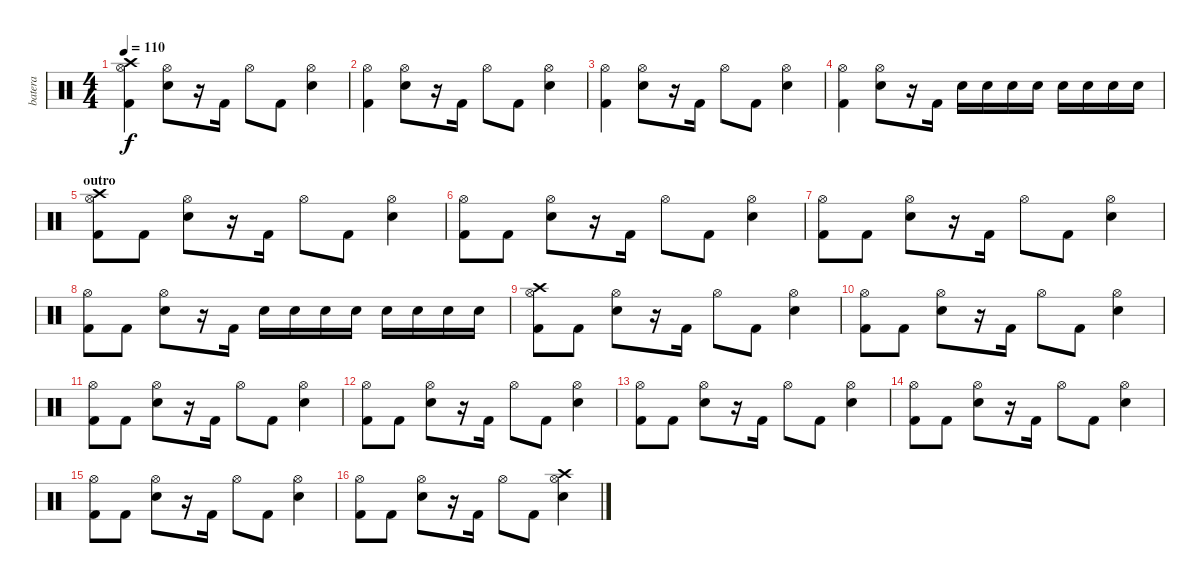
\track ("batera" "batera") {instrument percussion}
\staff {score}
\articulation defaults
\ts (4 4)
\tempo 110
\clef neutral
\ks c
("Crash high (hit)" "Kick (hit) 2" "Hi-Hat (open)").4{dy f} ("Snare (hit) 2" "Hi-Hat (open)").8 r.16 "Kick (hit) 2".16 "Hi-Hat (open)".8 "Kick (hit) 2".8 ("Snare (hit) 2" "Hi-Hat (open)").4 |
("Kick (hit) 2" "Hi-Hat (open)").4 ("Snare (hit) 2" "Hi-Hat (open)").8 r.16 "Kick (hit) 2".16 "Hi-Hat (open)".8 "Kick (hit) 2".8 ("Snare (hit) 2" "Hi-Hat (open)").4 |
("Kick (hit) 2" "Hi-Hat (open)").4 ("Snare (hit) 2" "Hi-Hat (open)").8 r.16 "Kick (hit) 2".16 "Hi-Hat (open)".8 "Kick (hit) 2".8 ("Snare (hit) 2" "Hi-Hat (open)").4 |
("Kick (hit) 2" "Hi-Hat (open)").4 ("Snare (hit) 2" "Hi-Hat (open)").8 r.16 "Kick (hit) 2".16 "Snare (hit) 2".16 "Snare (hit) 2".16 "Snare (hit) 2".16 "Snare (hit) 2".16 "Snare (hit) 2".16 "Snare (hit) 2".16 "Snare (hit) 2".16 "Snare (hit) 2".16 |
\section ("" "outro")
("Crash high (hit)" "Kick (hit) 2" "Hi-Hat (open)").8 "Kick (hit) 2".8 ("Snare (hit) 2" "Hi-Hat (open)").8 r.16 "Kick (hit) 2".16 "Hi-Hat (open)".8 "Kick (hit) 2".8 ("Snare (hit) 2" "Hi-Hat (open)").4 |
("Kick (hit) 2" "Hi-Hat (open)").8 "Kick (hit) 2".8 ("Snare (hit) 2" "Hi-Hat (open)").8 r.16 "Kick (hit) 2".16 "Hi-Hat (open)".8 "Kick (hit) 2".8 ("Snare (hit) 2" "Hi-Hat (open)").4 |
("Kick (hit) 2" "Hi-Hat (open)").8 "Kick (hit) 2".8 ("Snare (hit) 2" "Hi-Hat (open)").8 r.16 "Kick (hit) 2".16 "Hi-Hat (open)".8 "Kick (hit) 2".8 ("Snare (hit) 2" "Hi-Hat (open)").4 |
("Kick (hit) 2" "Hi-Hat (open)").8 "Kick (hit) 2".8 ("Snare (hit) 2" "Hi-Hat (open)").8 r.16 "Kick (hit) 2".16 "Snare (hit) 2".16 "Snare (hit) 2".16 "Snare (hit) 2".16 "Snare (hit) 2".16 "Snare (hit) 2".16 "Snare (hit) 2".16 "Snare (hit) 2".16 "Snare (hit) 2".16 |
("Crash high (hit)" "Kick (hit) 2" "Hi-Hat (open)").8 "Kick (hit) 2".8 ("Snare (hit) 2" "Hi-Hat (open)").8 r.16 "Kick (hit) 2".16 "Hi-Hat (open)".8 "Kick (hit) 2".8 ("Snare (hit) 2" "Hi-Hat (open)").4 |
("Kick (hit) 2" "Hi-Hat (open)").8 "Kick (hit) 2".8 ("Snare (hit) 2" "Hi-Hat (open)").8 r.16 "Kick (hit) 2".16 "Hi-Hat (open)".8 "Kick (hit) 2".8 ("Snare (hit) 2" "Hi-Hat (open)").4 |
("Kick (hit) 2" "Hi-Hat (open)").8 "Kick (hit) 2".8 ("Snare (hit) 2" "Hi-Hat (open)").8 r.16 "Kick (hit) 2".16 "Hi-Hat (open)".8 "Kick (hit) 2".8 ("Snare (hit) 2" "Hi-Hat (open)").4 |
("Kick (hit) 2" "Hi-Hat (open)").8 "Kick (hit) 2".8 ("Snare (hit) 2" "Hi-Hat (open)").8 r.16 "Kick (hit) 2".16 "Hi-Hat (open)".8 "Kick (hit) 2".8 ("Snare (hit) 2" "Hi-Hat (open)").4 |
("Kick (hit) 2" "Hi-Hat (open)").8 "Kick (hit) 2".8 ("Snare (hit) 2" "Hi-Hat (open)").8 r.16 "Kick (hit) 2".16 "Hi-Hat (open)".8 "Kick (hit) 2".8 ("Snare (hit) 2" "Hi-Hat (open)").4 |
("Kick (hit) 2" "Hi-Hat (open)").8 "Kick (hit) 2".8 ("Snare (hit) 2" "Hi-Hat (open)").8 r.16 "Kick (hit) 2".16 "Hi-Hat (open)".8 "Kick (hit) 2".8 ("Snare (hit) 2" "Hi-Hat (open)").4 |
("Kick (hit) 2" "Hi-Hat (open)").8 "Kick (hit) 2".8 ("Snare (hit) 2" "Hi-Hat (open)").8 r.16 "Kick (hit) 2".16 "Hi-Hat (open)".8 "Kick (hit) 2".8 ("Snare (hit) 2" "Hi-Hat (open)").4 |
("Kick (hit) 2" "Hi-Hat (open)").8 "Kick (hit) 2".8 ("Snare (hit) 2" "Hi-Hat (open)").8 r.16 "Kick (hit) 2".16 "Hi-Hat (open)".8 "Kick (hit) 2".8 ("Crash high (hit)" "Snare (hit) 2" "Hi-Hat (open)").4
